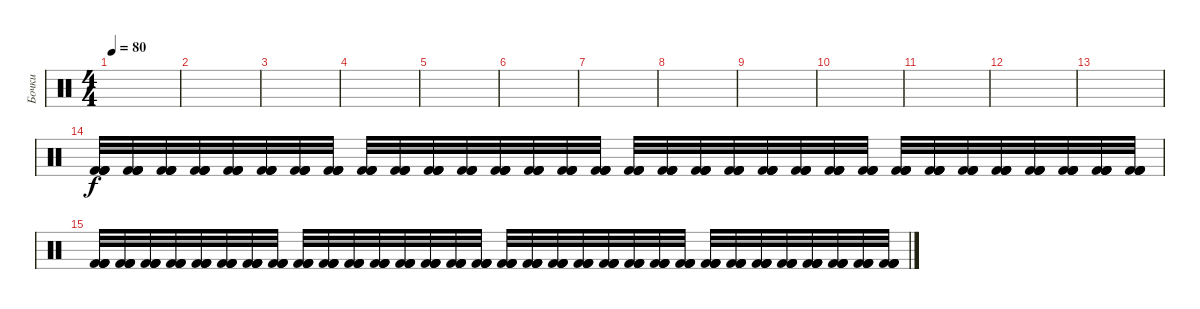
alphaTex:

\track ("Бочки" "Бочки") {instrument percussion}
\staff {score}
\articulation defaults
\ts (4 4)
\tempo 80
\clef neutral
\ks c
|
|
|
|
|
|
|
|
|
|
|
|
|
("Kick (hit) 2" "Kick (hit) 2" "Kick (hit) 2" "Kick (hit) 2").32 ("Kick (hit) 2" "Kick (hit) 2" "Kick (hit) 2" "Kick (hit) 2").32 ("Kick (hit) 2" "Kick (hit) 2" "Kick (hit) 2" "Kick (hit) 2").32 ("Kick (hit) 2" "Kick (hit) 2" "Kick (hit) 2" "Kick (hit) 2").32 ("Kick (hit) 2" "Kick (hit) 2" "Kick (hit) 2" "Kick (hit) 2").32 ("Kick (hit) 2" "Kick (hit) 2" "Kick (hit) 2" "Kick (hit) 2").32 ("Kick (hit) 2" "Kick (hit) 2" "Kick (hit) 2" "Kick (hit) 2").32 ("Kick (hit) 2" "Kick (hit) 2" "Kick (hit) 2" "Kick (hit) 2").32 ("Kick (hit) 2" "Kick (hit) 2" "Kick (hit) 2" "Kick (hit) 2").32 ("Kick (hit) 2" "Kick (hit) 2" "Kick (hit) 2" "Kick (hit) 2").32 ("Kick (hit) 2" "Kick (hit) 2" "Kick (hit) 2" "Kick (hit) 2").32 ("Kick (hit) 2" "Kick (hit) 2" "Kick (hit) 2" "Kick (hit) 2").32 ("Kick (hit) 2" "Kick (hit) 2" "Kick (hit) 2" "Kick (hit) 2").32 ("Kick (hit) 2" "Kick (hit) 2" "Kick (hit) 2" "Kick (hit) 2").32 ("Kick (hit) 2" "Kick (hit) 2" "Kick (hit) 2" "Kick (hit) 2").32 ("Kick (hit) 2" "Kick (hit) 2" "Kick (hit) 2" "Kick (hit) 2").32 ("Kick (hit) 2" "Kick (hit) 2" "Kick (hit) 2" "Kick (hit) 2").32 ("Kick (hit) 2" "Kick (hit) 2" "Kick (hit) 2" "Kick (hit) 2").32 ("Kick (hit) 2" "Kick (hit) 2" "Kick (hit) 2" "Kick (hit) 2").32 ("Kick (hit) 2" "Kick (hit) 2" "Kick (hit) 2" "Kick (hit) 2").32 ("Kick (hit) 2" "Kick (hit) 2" "Kick (hit) 2" "Kick (hit) 2").32 ("Kick (hit) 2" "Kick (hit) 2" "Kick (hit) 2" "Kick (hit) 2").32 ("Kick (hit) 2" "Kick (hit) 2" "Kick (hit) 2" "Kick (hit) 2").32 ("Kick (hit) 2" "Kick (hit) 2" "Kick (hit) 2" "Kick (hit) 2").32 ("Kick (hit) 2" "Kick (hit) 2" "Kick (hit) 2" "Kick (hit) 2").32 ("Kick (hit) 2" "Kick (hit) 2" "Kick (hit) 2" "Kick (hit) 2").32 ("Kick (hit) 2" "Kick (hit) 2" "Kick (hit) 2" "Kick (hit) 2").32 ("Kick (hit) 2" "Kick (hit) 2" "Kick (hit) 2" "Kick (hit) 2").32 ("Kick (hit) 2" "Kick (hit) 2" "Kick (hit) 2" "Kick (hit) 2").32 ("Kick (hit) 2" "Kick (hit) 2" "Kick (hit) 2" "Kick (hit) 2").32 ("Kick (hit) 2" "Kick (hit) 2" "Kick (hit) 2" "Kick (hit) 2").32 ("Kick (hit) 2" "Kick (hit) 2" "Kick (hit) 2" "Kick (hit) 2").32 |
("Kick (hit) 2" "Kick (hit) 2" "Kick (hit) 2" "Kick (hit) 2").32 ("Kick (hit) 2" "Kick (hit) 2" "Kick (hit) 2" "Kick (hit) 2").32 ("Kick (hit) 2" "Kick (hit) 2" "Kick (hit) 2" "Kick (hit) 2").32 ("Kick (hit) 2" "Kick (hit) 2" "Kick (hit) 2" "Kick (hit) 2").32 ("Kick (hit) 2" "Kick (hit) 2" "Kick (hit) 2" "Kick (hit) 2").32 ("Kick (hit) 2" "Kick (hit) 2" "Kick (hit) 2" "Kick (hit) 2").32 ("Kick (hit) 2" "Kick (hit) 2" "Kick (hit) 2" "Kick (hit) 2").32 ("Kick (hit) 2" "Kick (hit) 2" "Kick (hit) 2" "Kick (hit) 2").32 ("Kick (hit) 2" "Kick (hit) 2" "Kick (hit) 2" "Kick (hit) 2").32 ("Kick (hit) 2" "Kick (hit) 2" "Kick (hit) 2" "Kick (hit) 2").32 ("Kick (hit) 2" "Kick (hit) 2" "Kick (hit) 2" "Kick (hit) 2").32 ("Kick (hit) 2" "Kick (hit) 2" "Kick (hit) 2" "Kick (hit) 2").32 ("Kick (hit) 2" "Kick (hit) 2" "Kick (hit) 2" "Kick (hit) 2").32 ("Kick (hit) 2" "Kick (hit) 2" "Kick (hit) 2" "Kick (hit) 2").32 ("Kick (hit) 2" "Kick (hit) 2" "Kick (hit) 2" "Kick (hit) 2").32 ("Kick (hit) 2" "Kick (hit) 2" "Kick (hit) 2" "Kick (hit) 2").32 ("Kick (hit) 2" "Kick (hit) 2" "Kick (hit) 2" "Kick (hit) 2").32 ("Kick (hit) 2" "Kick (hit) 2" "Kick (hit) 2" "Kick (hit) 2").32 ("Kick (hit) 2" "Kick (hit) 2" "Kick (hit) 2" "Kick (hit) 2").32 ("Kick (hit) 2" "Kick (hit) 2" "Kick (hit) 2" "Kick (hit) 2").32 ("Kick (hit) 2" "Kick (hit) 2" "Kick (hit) 2" "Kick (hit) 2").32 ("Kick (hit) 2" "Kick (hit) 2" "Kick (hit) 2" "Kick (hit) 2").32 ("Kick (hit) 2" "Kick (hit) 2" "Kick (hit) 2" "Kick (hit) 2").32 ("Kick (hit) 2" "Kick (hit) 2" "Kick (hit) 2" "Kick (hit) 2").32 ("Kick (hit) 2" "Kick (hit) 2" "Kick (hit) 2" "Kick (hit) 2").32 ("Kick (hit) 2" "Kick (hit) 2" "Kick (hit) 2" "Kick (hit) 2").32 ("Kick (hit) 2" "Kick (hit) 2" "Kick (hit) 2" "Kick (hit) 2").32 ("Kick (hit) 2" "Kick (hit) 2" "Kick (hit) 2" "Kick (hit) 2").32 ("Kick (hit) 2" "Kick (hit) 2" "Kick (hit) 2" "Kick (hit) 2").32 ("Kick (hit) 2" "Kick (hit) 2" "Kick (hit) 2" "Kick (hit) 2").32 ("Kick (hit) 2" "Kick (hit) 2" "Kick (hit) 2" "Kick (hit) 2").32 ("Kick (hit) 2" "Kick (hit) 2" "Kick (hit) 2" "Kick (hit) 2").32
